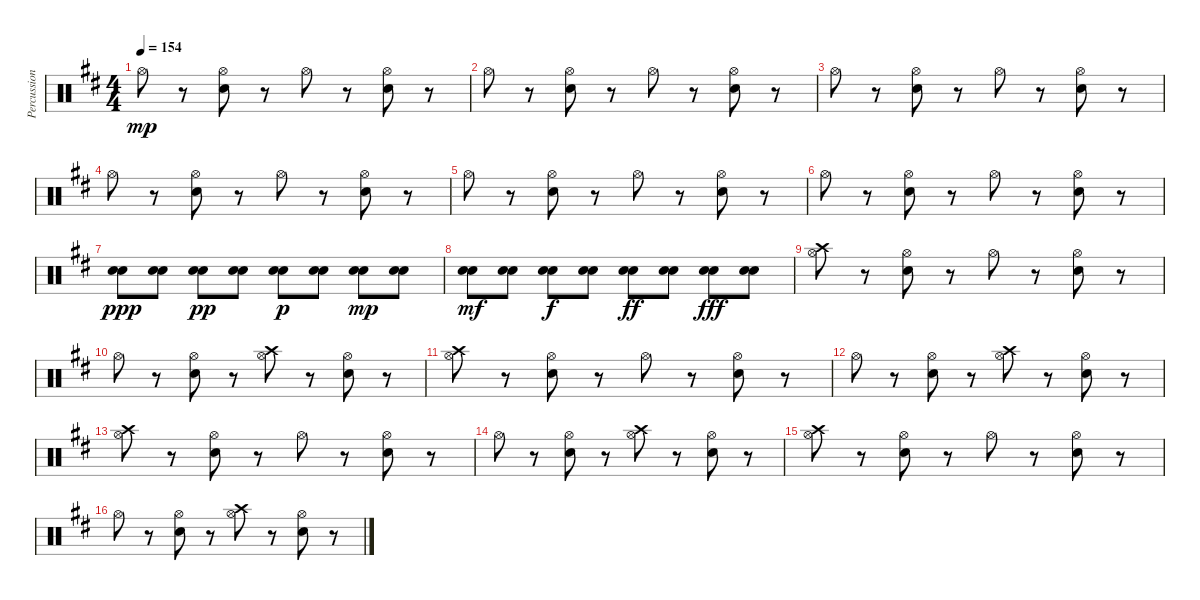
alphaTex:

\track ("Percussion (Mike Felumlee" "Percussion") {instrument percussion}
\staff {score}
\articulation defaults
\ts (4 4)
\tempo 154
\clef neutral
\ks bminor "Hi-Hat (open)".8{dy mp}
r.8 ("Hi-Hat (open)" "Electric Snare (hit)").8 r.8 "Hi-Hat (open)".8 r.8 ("Hi-Hat (open)" "Electric Snare (hit)").8 r.8 |
"Hi-Hat (open)".8 r.8 ("Hi-Hat (open)" "Electric Snare (hit)").8 r.8 "Hi-Hat (open)".8 r.8 ("Hi-Hat (open)" "Electric Snare (hit)").8 r.8 |
"Hi-Hat (open)".8 r.8 ("Hi-Hat (open)" "Electric Snare (hit)").8 r.8 "Hi-Hat (open)".8 r.8 ("Hi-Hat (open)" "Electric Snare (hit)").8 r.8 |
"Hi-Hat (open)".8 r.8 ("Hi-Hat (open)" "Electric Snare (hit)").8 r.8 "Hi-Hat (open)".8 r.8 ("Hi-Hat (open)" "Electric Snare (hit)").8 r.8 |
"Hi-Hat (open)".8 r.8 ("Hi-Hat (open)" "Electric Snare (hit)").8 r.8 "Hi-Hat (open)".8 r.8 ("Hi-Hat (open)" "Electric Snare (hit)").8 r.8 |
"Hi-Hat (open)".8 r.8 ("Hi-Hat (open)" "Electric Snare (hit)").8 r.8 "Hi-Hat (open)".8 r.8 ("Hi-Hat (open)" "Electric Snare (hit)").8 r.8 |
("Snare (hit) 2" "Electric Snare (hit)").8{dy ppp} ("Snare (hit) 2" "Electric Snare (hit)").8 ("Snare (hit) 2" "Electric Snare (hit)").8{dy pp} ("Snare (hit) 2" "Electric Snare (hit)").8 ("Snare (hit) 2" "Electric Snare (hit)").8{dy p} ("Snare (hit) 2" "Electric Snare (hit)").8 ("Snare (hit) 2" "Electric Snare (hit)").8{dy mp} ("Snare (hit) 2" "Electric Snare (hit)").8 |
("Snare (hit) 2" "Electric Snare (hit)").8{dy mf} ("Snare (hit) 2" "Electric Snare (hit)").8 ("Snare (hit) 2" "Electric Snare (hit)").8{dy f} ("Snare (hit) 2" "Electric Snare (hit)").8 ("Snare (hit) 2" "Electric Snare (hit)").8{dy ff} ("Snare (hit) 2" "Electric Snare (hit)").8 ("Snare (hit) 2" "Electric Snare (hit)").8{dy fff} ("Snare (hit) 2" "Electric Snare (hit)").8 |
("Hi-Hat (open)" "Crash high (hit)").8 r.8 ("Hi-Hat (open)" "Electric Snare (hit)").8 r.8 "Hi-Hat (open)".8 r.8 ("Hi-Hat (open)" "Electric Snare (hit)").8 r.8 |
"Hi-Hat (open)".8 r.8 ("Hi-Hat (open)" "Electric Snare (hit)").8 r.8 ("Hi-Hat (open)" "Crash high (hit)").8 r.8 ("Hi-Hat (open)" "Electric Snare (hit)").8 r.8 |
("Hi-Hat (open)" "Crash high (hit)").8 r.8 ("Hi-Hat (open)" "Electric Snare (hit)").8 r.8 "Hi-Hat (open)".8 r.8 ("Hi-Hat (open)" "Electric Snare (hit)").8 r.8 |
"Hi-Hat (open)".8 r.8 ("Hi-Hat (open)" "Electric Snare (hit)").8 r.8 ("Hi-Hat (open)" "Crash high (hit)").8 r.8 ("Hi-Hat (open)" "Electric Snare (hit)").8 r.8 |
("Hi-Hat (open)" "Crash high (hit)").8 r.8 ("Hi-Hat (open)" "Electric Snare (hit)").8 r.8 "Hi-Hat (open)".8 r.8 ("Hi-Hat (open)" "Electric Snare (hit)").8 r.8 |
"Hi-Hat (open)".8 r.8 ("Hi-Hat (open)" "Electric Snare (hit)").8 r.8 ("Hi-Hat (open)" "Crash high (hit)").8 r.8 ("Hi-Hat (open)" "Electric Snare (hit)").8 r.8 |
("Hi-Hat (open)" "Crash high (hit)").8 r.8 ("Hi-Hat (open)" "Electric Snare (hit)").8 r.8 "Hi-Hat (open)".8 r.8 ("Hi-Hat (open)" "Electric Snare (hit)").8 r.8 |
"Hi-Hat (open)".8 r.8 ("Hi-Hat (open)" "Electric Snare (hit)").8 r.8 ("Hi-Hat (open)" "Crash high (hit)").8 r.8 ("Hi-Hat (open)" "Electric Snare (hit)").8 r.8
